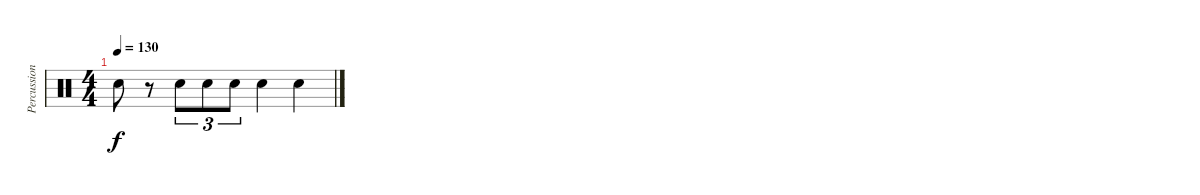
\track ("Percussion" "Percussion") {instrument percussion}
\staff {score}
\articulation defaults
\ts (4 4)
\tempo 130
\clef neutral
\ks c "Snare (hit) 2".8{dy f}
r.8 "Snare (hit) 2".8{tu (3 2)} "Snare (hit) 2".8{tu (3 2)} "Snare (hit) 2".8{tu (3 2)} "Snare (hit) 2".4 "Snare (hit) 2".4
